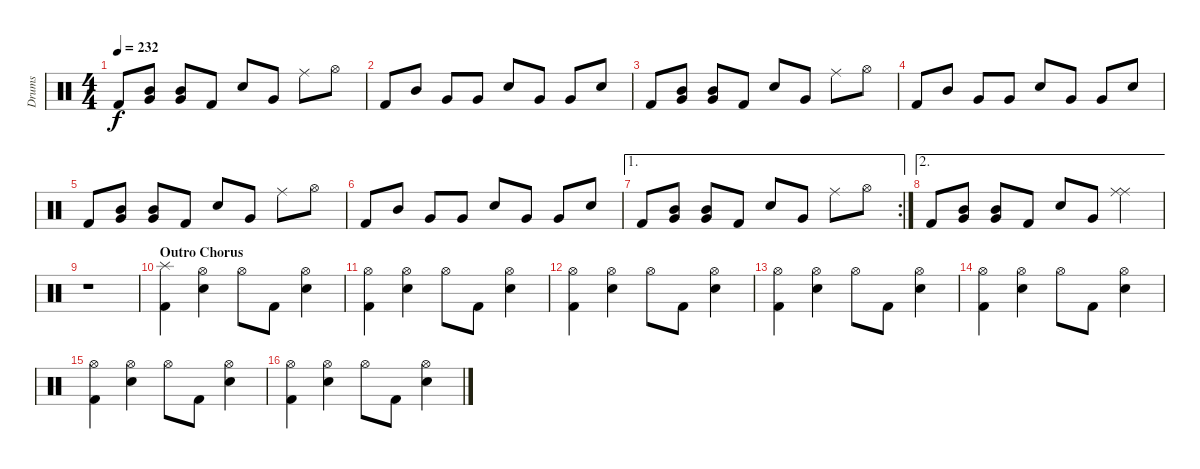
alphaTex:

\track ("Drums" "Drums") {instrument percussion}
\staff {score}
\articulation defaults
\ts (4 4)
\tempo 232
\clef neutral
\ks c "Kick (hit) 2".8{dy f}
("Mid Tom (hit)" "Very Low Tom (hit)").8 ("Mid Tom (hit)" "Very Low Tom (hit)").8 "Kick (hit) 2".8 "Electric Snare (hit)".8 "Very Low Tom (hit)".8 "Ride (middle)".8 "Hi-Hat (open)".8 |
"Kick (hit) 2".8 "Mid Tom (hit)".8 "Very Low Tom (hit)".8 "Very Low Tom (hit)".8 "Electric Snare (hit)".8 "Very Low Tom (hit)".8 "Very Low Tom (hit)".8 "Electric Snare (hit)".8 |
"Kick (hit) 2".8 ("Mid Tom (hit)" "Very Low Tom (hit)").8 ("Mid Tom (hit)" "Very Low Tom (hit)").8 "Kick (hit) 2".8 "Electric Snare (hit)".8 "Very Low Tom (hit)".8 "Ride (middle)".8 "Hi-Hat (open)".8 |
"Kick (hit) 2".8 "Mid Tom (hit)".8 "Very Low Tom (hit)".8 "Very Low Tom (hit)".8 "Electric Snare (hit)".8 "Very Low Tom (hit)".8 "Very Low Tom (hit)".8 "Electric Snare (hit)".8 |
"Kick (hit) 2".8 ("Mid Tom (hit)" "Very Low Tom (hit)").8 ("Mid Tom (hit)" "Very Low Tom (hit)").8 "Kick (hit) 2".8 "Electric Snare (hit)".8 "Very Low Tom (hit)".8 "Ride (middle)".8 "Hi-Hat (open)".8 |
"Kick (hit) 2".8 "Mid Tom (hit)".8 "Very Low Tom (hit)".8 "Very Low Tom (hit)".8 "Electric Snare (hit)".8 "Very Low Tom (hit)".8 "Very Low Tom (hit)".8 "Electric Snare (hit)".8 |
\ae 1
\rc 2 "Kick (hit) 2".8
("Mid Tom (hit)" "Very Low Tom (hit)").8 ("Mid Tom (hit)" "Very Low Tom (hit)").8 "Kick (hit) 2".8 "Electric Snare (hit)".8 "Very Low Tom (hit)".8 "Ride (middle)".8 "Hi-Hat (open)".8 |
\ae 2 "Kick (hit) 2".8
("Mid Tom (hit)" "Very Low Tom (hit)").8 ("Mid Tom (hit)" "Very Low Tom (hit)").8 "Kick (hit) 2".8 "Electric Snare (hit)".8 "Very Low Tom (hit)".8 ("Ride (middle)" "Ride (middle)").4 |
r.1 |
\section ("" "Outro Chorus")
("Splash (hit)" "Kick (hit) 2").4 ("Hi-Hat (open)" "Electric Snare (hit)").4 "Hi-Hat (open)".8 "Kick (hit) 2".8 ("Hi-Hat (open)" "Electric Snare (hit)").4 |
("Hi-Hat (open)" "Kick (hit) 2").4 ("Hi-Hat (open)" "Electric Snare (hit)").4 "Hi-Hat (open)".8 "Kick (hit) 2".8 ("Hi-Hat (open)" "Electric Snare (hit)").4 |
("Hi-Hat (open)" "Kick (hit) 2").4 ("Hi-Hat (open)" "Electric Snare (hit)").4 "Hi-Hat (open)".8 "Kick (hit) 2".8 ("Hi-Hat (open)" "Electric Snare (hit)").4 |
("Hi-Hat (open)" "Kick (hit) 2").4 ("Hi-Hat (open)" "Electric Snare (hit)").4 "Hi-Hat (open)".8 "Kick (hit) 2".8 ("Hi-Hat (open)" "Electric Snare (hit)").4 |
("Hi-Hat (open)" "Kick (hit) 2").4 ("Hi-Hat (open)" "Electric Snare (hit)").4 "Hi-Hat (open)".8 "Kick (hit) 2".8 ("Hi-Hat (open)" "Electric Snare (hit)").4 |
("Hi-Hat (open)" "Kick (hit) 2").4 ("Hi-Hat (open)" "Electric Snare (hit)").4 "Hi-Hat (open)".8 "Kick (hit) 2".8 ("Hi-Hat (open)" "Electric Snare (hit)").4 |
("Hi-Hat (open)" "Kick (hit) 2").4 ("Hi-Hat (open)" "Electric Snare (hit)").4 "Hi-Hat (open)".8 "Kick (hit) 2".8 ("Hi-Hat (open)" "Electric Snare (hit)").4
